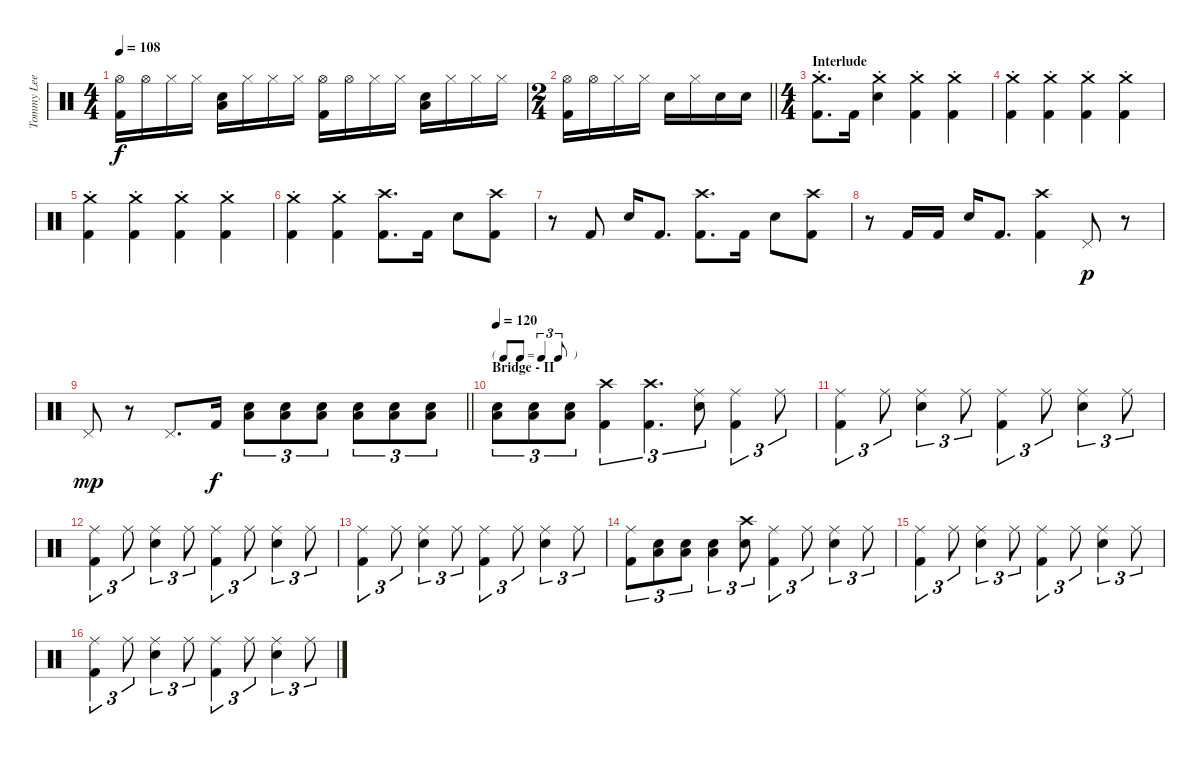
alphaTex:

\track ("Tommy Lee - Drums" "Tommy Lee ") {instrument percussion}
\staff {score}
\articulation defaults
\ts (4 4)
\tempo 108
\clef neutral
\ks c
("Hi-Hat (open)" "Kick (hit) 2").16{dy f} "Hi-Hat (open)".16 "Hi-Hat (closed)".16 "Hi-Hat (closed)".16 ("Snare (hit) 2" "Low Floor Tom (hit)").16 "Hi-Hat (closed)".16 "Hi-Hat (closed)".16 "Hi-Hat (closed)".16 ("Hi-Hat (open)" "Kick (hit) 2").16 "Hi-Hat (open)".16 "Hi-Hat (closed)".16 "Hi-Hat (closed)".16 ("Snare (hit) 2" "Low Floor Tom (hit)").16 "Hi-Hat (closed)".16 "Hi-Hat (closed)".16 "Hi-Hat (closed)".16 |
\ts (2 4)
\barLineRight lightlight
("Hi-Hat (open)" "Kick (hit) 2").16 "Hi-Hat (open)".16 "Hi-Hat (closed)".16 "Hi-Hat (closed)".16 "Snare (hit) 2".16 "Hi-Hat (closed)".16 "Snare (hit) 2".16 "Snare (hit) 2".16 |
\ts (4 4)
\section ("" "Interlude")
("Crash medium (hit)"{st} "Kick (hit) 2").8{d} "Kick (hit) 2".16 ("Crash medium (hit)"{st} "Snare (hit) 2").4 ("Crash medium (hit)"{st} "Kick (hit) 2").4 ("Crash medium (hit)"{st} "Kick (hit) 2").4 |
("Crash medium (hit)"{st} "Kick (hit) 2").4 ("Crash medium (hit)"{st} "Kick (hit) 2").4 ("Crash medium (hit)"{st} "Kick (hit) 2").4 ("Crash medium (hit)"{st} "Kick (hit) 2").4 |
("Crash medium (hit)"{st} "Kick (hit) 2").4 ("Crash medium (hit)"{st} "Kick (hit) 2").4 ("Crash medium (hit)"{st} "Kick (hit) 2").4 ("Crash medium (hit)"{st} "Kick (hit) 2").4 |
("Crash medium (hit)"{st} "Kick (hit) 2").4 ("Crash medium (hit)"{st} "Kick (hit) 2").4 ("Crash high (hit)" "Kick (hit) 2").8{d} "Kick (hit) 2".16 "Snare (hit) 2".8 ("Crash high (hit)" "Kick (hit) 2").8 |
r.8 "Kick (hit) 2".8 "Snare (hit) 2".16 "Kick (hit) 2".8{d} ("Crash high (hit)" "Kick (hit) 2").8{d} "Kick (hit) 2".16 "Snare (hit) 2".8 ("Crash high (hit)" "Kick (hit) 2").8 |
r.8 "Kick (hit) 2".16 "Kick (hit) 2".16 "Snare (hit) 2".16 "Kick (hit) 2".8{d} ("Crash high (hit)" "Kick (hit) 2").4 "Pedal Hi-Hat (hit)".8{dy p} r.8 |
\barLineRight lightlight "Pedal Hi-Hat (hit)".8{dy mp}
r.8 "Pedal Hi-Hat (hit)".8{d} "Kick (hit) 2".16{dy f} ("Snare (hit) 2" "Low Floor Tom (hit)").8{tu (3 2)} ("Snare (hit) 2" "Low Floor Tom (hit)").8{tu (3 2)} ("Snare (hit) 2" "Low Floor Tom (hit)").8{tu (3 2)} ("Snare (hit) 2" "Low Floor Tom (hit)").8{tu (3 2)} ("Snare (hit) 2" "Low Floor Tom (hit)").8{tu (3 2)} ("Snare (hit) 2" "Low Floor Tom (hit)").8{tu (3 2)} |
\tf triplet8th
\section ("" "Bridge - II")
\tempo 120
("Snare (hit) 2" "Low Floor Tom (hit)").8{tu (3 2)} ("Snare (hit) 2" "Low Floor Tom (hit)").8{tu (3 2)} ("Snare (hit) 2" "Low Floor Tom (hit)").8{tu (3 2)} ("Crash high (hit)" "Kick (hit) 2").4{tu (3 2)} ("Crash high (hit)" "Kick (hit) 2").4{d tu (3 2)} ("Ride (middle)" "Snare (hit) 2").8{tu (3 2)} ("Ride (middle)" "Kick (hit) 2").4{tu (3 2)} "Ride (middle)".8{tu (3 2)} |
("Ride (middle)" "Kick (hit) 2").4{tu (3 2)} "Ride (middle)".8{tu (3 2)} ("Ride (middle)" "Snare (hit) 2").4{tu (3 2)} "Ride (middle)".8{tu (3 2)} ("Ride (middle)" "Kick (hit) 2").4{tu (3 2)} "Ride (middle)".8{tu (3 2)} ("Ride (middle)" "Snare (hit) 2").4{tu (3 2)} "Ride (middle)".8{tu (3 2)} |
("Ride (middle)" "Kick (hit) 2").4{tu (3 2)} "Ride (middle)".8{tu (3 2)} ("Ride (middle)" "Snare (hit) 2").4{tu (3 2)} "Ride (middle)".8{tu (3 2)} ("Ride (middle)" "Kick (hit) 2").4{tu (3 2)} "Ride (middle)".8{tu (3 2)} ("Ride (middle)" "Snare (hit) 2").4{tu (3 2)} "Ride (middle)".8{tu (3 2)} |
("Ride (middle)" "Kick (hit) 2").4{tu (3 2)} "Ride (middle)".8{tu (3 2)} ("Ride (middle)" "Snare (hit) 2").4{tu (3 2)} "Ride (middle)".8{tu (3 2)} ("Ride (middle)" "Kick (hit) 2").4{tu (3 2)} "Ride (middle)".8{tu (3 2)} ("Ride (middle)" "Snare (hit) 2").4{tu (3 2)} "Ride (middle)".8{tu (3 2)} |
("Ride (middle)" "Kick (hit) 2").8{tu (3 2)} ("Snare (hit) 2" "Low Floor Tom (hit)").8{tu (3 2)} ("Snare (hit) 2" "Low Floor Tom (hit)").8{tu (3 2)} ("Snare (hit) 2" "Low Floor Tom (hit)").4{tu (3 2)} ("Crash high (hit)" "Snare (hit) 2").8{tu (3 2)} ("Ride (middle)" "Kick (hit) 2").4{tu (3 2)} "Ride (middle)".8{tu (3 2)} ("Ride (middle)" "Snare (hit) 2").4{tu (3 2)} "Ride (middle)".8{tu (3 2)} |
("Ride (middle)" "Kick (hit) 2").4{tu (3 2)} "Ride (middle)".8{tu (3 2)} ("Ride (middle)" "Snare (hit) 2").4{tu (3 2)} "Ride (middle)".8{tu (3 2)} ("Ride (middle)" "Kick (hit) 2").4{tu (3 2)} "Ride (middle)".8{tu (3 2)} ("Ride (middle)" "Snare (hit) 2").4{tu (3 2)} "Ride (middle)".8{tu (3 2)} |
("Ride (middle)" "Kick (hit) 2").4{tu (3 2)} "Ride (middle)".8{tu (3 2)} ("Ride (middle)" "Snare (hit) 2").4{tu (3 2)} "Ride (middle)".8{tu (3 2)} ("Ride (middle)" "Kick (hit) 2").4{tu (3 2)} "Ride (middle)".8{tu (3 2)} ("Ride (middle)" "Snare (hit) 2").4{tu (3 2)} "Ride (middle)".8{tu (3 2)}
